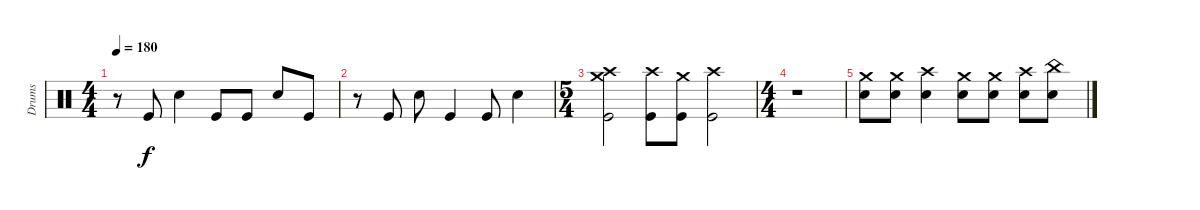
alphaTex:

\track ("Drums" "Drums") {instrument percussion}
\staff {score}
\articulation defaults
\ts (4 4)
\tempo 180
\clef neutral
\ks c
r.8{dy f} "Kick (hit)".8 "Electric Snare (hit)".4 "Kick (hit)".8 "Kick (hit)".8 "Electric Snare (hit)".8 "Kick (hit)".8 |
r.8 "Kick (hit)".8 "Electric Snare (hit)".8 "Kick (hit)".4 "Kick (hit)".8 "Electric Snare (hit)".4 |
\ts (5 4)
("Crash medium (hit)" "Crash high (hit)" "Kick (hit)").2 ("Crash high (hit)" "Kick (hit)").8 ("Crash medium (hit)" "Kick (hit)").8 ("Crash high (hit)" "Kick (hit)").2 |
\ts (4 4)
r.1 |
("Crash medium (hit)" "Electric Snare (hit)").8 ("Crash medium (hit)" "Electric Snare (hit)").8 ("Crash high (hit)" "Electric Snare (hit)").4 ("Crash medium (hit)" "Electric Snare (hit)").8 ("Crash medium (hit)" "Electric Snare (hit)").8 ("Crash high (hit)" "Electric Snare (hit)").8 ("China (hit)" "Electric Snare (hit)").8
